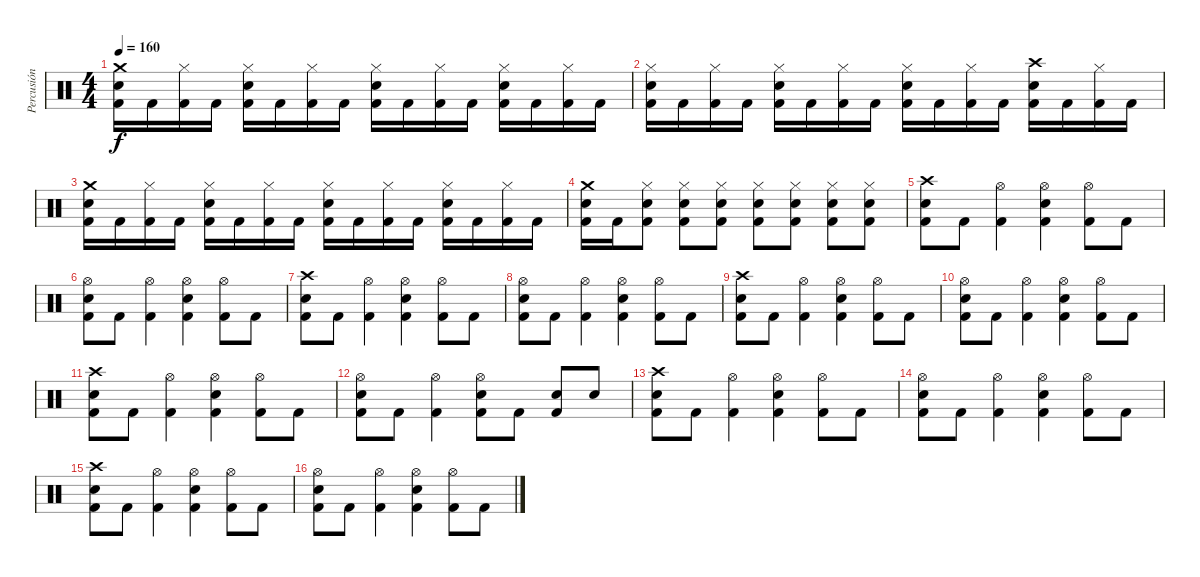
\track ("Percusión" "Percusión") {instrument percussion}
\staff {score}
\articulation defaults
\ts (4 4)
\tempo 160
\clef neutral
\ks c
("Crash medium (hit)" "Snare (hit) 2" "Kick (hit) 2").16{dy f} "Kick (hit) 2".16 ("Hi-Hat (closed)" "Kick (hit) 2").16 "Kick (hit) 2".16 ("Hi-Hat (closed)" "Snare (hit) 2" "Kick (hit) 2").16 "Kick (hit) 2".16 ("Hi-Hat (closed)" "Kick (hit) 2").16 "Kick (hit) 2".16 ("Hi-Hat (closed)" "Snare (hit) 2" "Kick (hit) 2").16 "Kick (hit) 2".16 ("Hi-Hat (closed)" "Kick (hit) 2").16 "Kick (hit) 2".16 ("Hi-Hat (closed)" "Snare (hit) 2" "Kick (hit) 2").16 "Kick (hit) 2".16 ("Hi-Hat (closed)" "Kick (hit) 2").16 "Kick (hit) 2".16 |
("Hi-Hat (closed)" "Snare (hit) 2" "Kick (hit) 2").16 "Kick (hit) 2".16 ("Hi-Hat (closed)" "Kick (hit) 2").16 "Kick (hit) 2".16 ("Hi-Hat (closed)" "Snare (hit) 2" "Kick (hit) 2").16 "Kick (hit) 2".16 ("Hi-Hat (closed)" "Kick (hit) 2").16 "Kick (hit) 2".16 ("Hi-Hat (closed)" "Snare (hit) 2" "Kick (hit) 2").16 "Kick (hit) 2".16 ("Hi-Hat (closed)" "Kick (hit) 2").16 "Kick (hit) 2".16 ("Crash high (hit)" "Snare (hit) 2" "Kick (hit) 2").16 "Kick (hit) 2".16 ("Hi-Hat (closed)" "Kick (hit) 2").16 "Kick (hit) 2".16 |
("Crash medium (hit)" "Snare (hit) 2" "Kick (hit) 2").16 "Kick (hit) 2".16 ("Hi-Hat (closed)" "Kick (hit) 2").16 "Kick (hit) 2".16 ("Hi-Hat (closed)" "Snare (hit) 2" "Kick (hit) 2").16 "Kick (hit) 2".16 ("Hi-Hat (closed)" "Kick (hit) 2").16 "Kick (hit) 2".16 ("Hi-Hat (closed)" "Snare (hit) 2" "Kick (hit) 2").16 "Kick (hit) 2".16 ("Hi-Hat (closed)" "Kick (hit) 2").16 "Kick (hit) 2".16 ("Hi-Hat (closed)" "Snare (hit) 2" "Kick (hit) 2").16 "Kick (hit) 2".16 ("Hi-Hat (closed)" "Kick (hit) 2").16 "Kick (hit) 2".16 |
("Crash medium (hit)" "Snare (hit) 2" "Kick (hit) 2").16 "Kick (hit) 2".16 ("Hi-Hat (closed)" "Snare (hit) 2" "Kick (hit) 2").8 ("Hi-Hat (closed)" "Snare (hit) 2" "Kick (hit) 2").8 ("Hi-Hat (closed)" "Snare (hit) 2" "Kick (hit) 2").8 ("Hi-Hat (closed)" "Snare (hit) 2" "Kick (hit) 2").8 ("Hi-Hat (closed)" "Snare (hit) 2" "Kick (hit) 2").8 ("Hi-Hat (closed)" "Snare (hit) 2" "Kick (hit) 2").8 ("Hi-Hat (closed)" "Snare (hit) 2" "Kick (hit) 2").8 |
("Crash high (hit)" "Snare (hit) 2" "Kick (hit) 2").8 "Kick (hit) 2".8 ("Hi-Hat (open)" "Kick (hit) 2").4 ("Hi-Hat (open)" "Snare (hit) 2" "Kick (hit) 2").4 ("Hi-Hat (open)" "Kick (hit) 2").8 "Kick (hit) 2".8 |
("Hi-Hat (open)" "Snare (hit) 2" "Kick (hit) 2").8 "Kick (hit) 2".8 ("Hi-Hat (open)" "Kick (hit) 2").4 ("Hi-Hat (open)" "Snare (hit) 2" "Kick (hit) 2").4 ("Hi-Hat (open)" "Kick (hit) 2").8 "Kick (hit) 2".8 |
("Crash high (hit)" "Snare (hit) 2" "Kick (hit) 2").8 "Kick (hit) 2".8 ("Hi-Hat (open)" "Kick (hit) 2").4 ("Hi-Hat (open)" "Snare (hit) 2" "Kick (hit) 2").4 ("Hi-Hat (open)" "Kick (hit) 2").8 "Kick (hit) 2".8 |
("Hi-Hat (open)" "Snare (hit) 2" "Kick (hit) 2").8 "Kick (hit) 2".8 ("Hi-Hat (open)" "Kick (hit) 2").4 ("Hi-Hat (open)" "Snare (hit) 2" "Kick (hit) 2").4 ("Hi-Hat (open)" "Kick (hit) 2").8 "Kick (hit) 2".8 |
("Crash high (hit)" "Snare (hit) 2" "Kick (hit) 2").8 "Kick (hit) 2".8 ("Hi-Hat (open)" "Kick (hit) 2").4 ("Hi-Hat (open)" "Snare (hit) 2" "Kick (hit) 2").4 ("Hi-Hat (open)" "Kick (hit) 2").8 "Kick (hit) 2".8 |
("Hi-Hat (open)" "Snare (hit) 2" "Kick (hit) 2").8 "Kick (hit) 2".8 ("Hi-Hat (open)" "Kick (hit) 2").4 ("Hi-Hat (open)" "Snare (hit) 2" "Kick (hit) 2").4 ("Hi-Hat (open)" "Kick (hit) 2").8 "Kick (hit) 2".8 |
("Crash high (hit)" "Snare (hit) 2" "Kick (hit) 2").8 "Kick (hit) 2".8 ("Hi-Hat (open)" "Kick (hit) 2").4 ("Hi-Hat (open)" "Snare (hit) 2" "Kick (hit) 2").4 ("Hi-Hat (open)" "Kick (hit) 2").8 "Kick (hit) 2".8 |
("Hi-Hat (open)" "Snare (hit) 2" "Kick (hit) 2").8 "Kick (hit) 2".8 ("Hi-Hat (open)" "Kick (hit) 2").4 ("Hi-Hat (open)" "Snare (hit) 2" "Kick (hit) 2").8 "Kick (hit) 2".8 ("Snare (hit) 2" "Kick (hit) 2").8 "Snare (hit) 2".8 |
("Crash high (hit)" "Snare (hit) 2" "Kick (hit) 2").8 "Kick (hit) 2".8 ("Hi-Hat (open)" "Kick (hit) 2").4 ("Hi-Hat (open)" "Snare (hit) 2" "Kick (hit) 2").4 ("Hi-Hat (open)" "Kick (hit) 2").8 "Kick (hit) 2".8 |
("Hi-Hat (open)" "Snare (hit) 2" "Kick (hit) 2").8 "Kick (hit) 2".8 ("Hi-Hat (open)" "Kick (hit) 2").4 ("Hi-Hat (open)" "Snare (hit) 2" "Kick (hit) 2").4 ("Hi-Hat (open)" "Kick (hit) 2").8 "Kick (hit) 2".8 |
("Crash high (hit)" "Snare (hit) 2" "Kick (hit) 2").8 "Kick (hit) 2".8 ("Hi-Hat (open)" "Kick (hit) 2").4 ("Hi-Hat (open)" "Snare (hit) 2" "Kick (hit) 2").4 ("Hi-Hat (open)" "Kick (hit) 2").8 "Kick (hit) 2".8 |
("Hi-Hat (open)" "Snare (hit) 2" "Kick (hit) 2").8 "Kick (hit) 2".8 ("Hi-Hat (open)" "Kick (hit) 2").4 ("Hi-Hat (open)" "Snare (hit) 2" "Kick (hit) 2").4 ("Hi-Hat (open)" "Kick (hit) 2").8 "Kick (hit) 2".8
